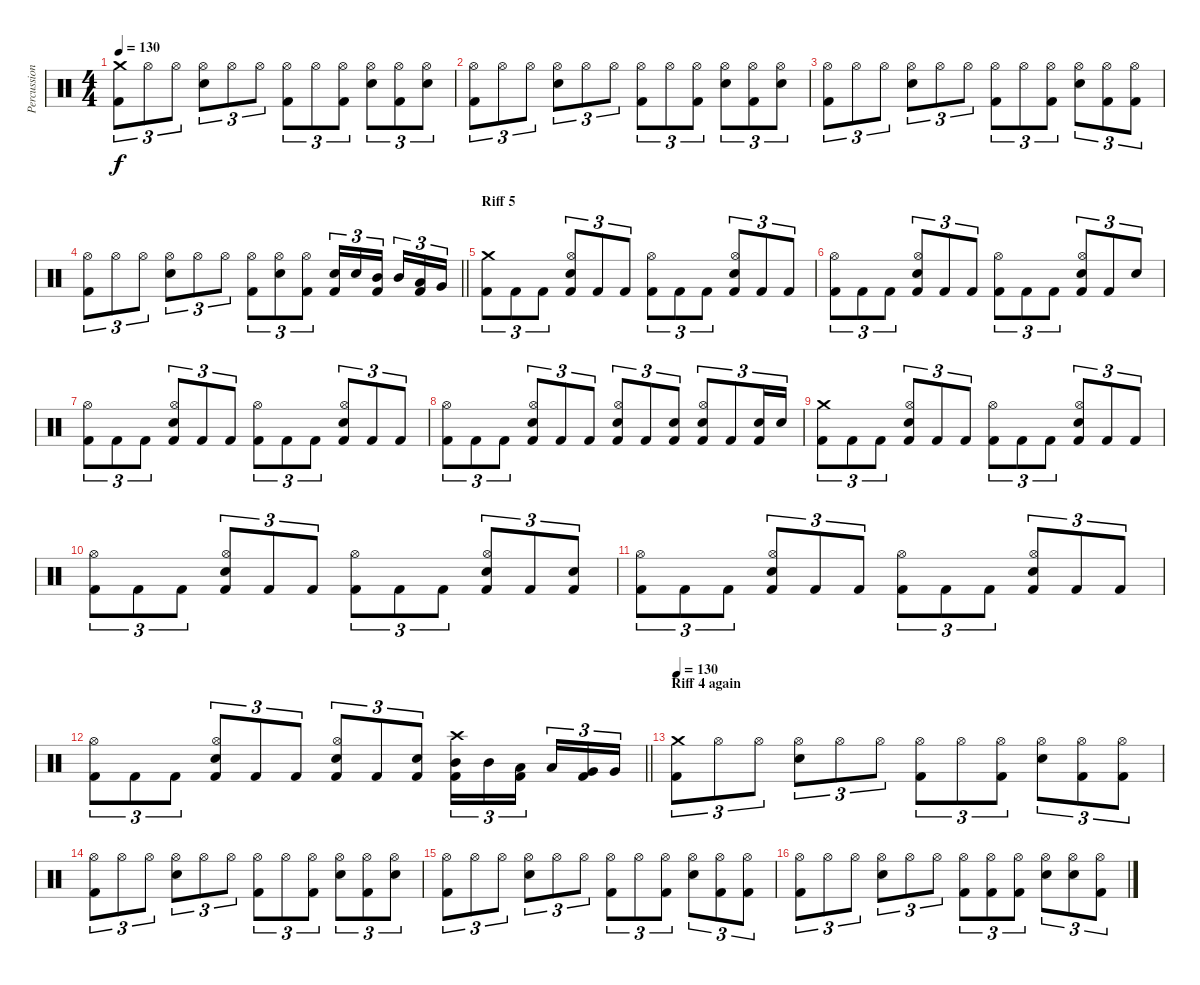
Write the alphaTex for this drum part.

\track ("Percussion" "Percussion") {instrument percussion}
\staff {score}
\articulation defaults
\ts (4 4)
\tempo 130
\clef neutral
\ks c
("Crash medium (hit)" "Kick (hit) 2").8{tu (3 2) dy f} "Hi-Hat (open)".8{tu (3 2)} "Hi-Hat (open)".8{tu (3 2)} ("Hi-Hat (open)" "Snare (hit) 2").8{tu (3 2)} "Hi-Hat (open)".8{tu (3 2)} "Hi-Hat (open)".8{tu (3 2)} ("Hi-Hat (open)" "Kick (hit) 2").8{tu (3 2)} "Hi-Hat (open)".8{tu (3 2)} ("Hi-Hat (open)" "Kick (hit) 2").8{tu (3 2)} ("Hi-Hat (open)" "Snare (hit) 2").8{tu (3 2)} ("Hi-Hat (open)" "Kick (hit) 2").8{tu (3 2)} ("Hi-Hat (open)" "Snare (hit) 2").8{tu (3 2)} |
("Hi-Hat (open)" "Kick (hit) 2").8{tu (3 2)} "Hi-Hat (open)".8{tu (3 2)} "Hi-Hat (open)".8{tu (3 2)} ("Hi-Hat (open)" "Snare (hit) 2").8{tu (3 2)} "Hi-Hat (open)".8{tu (3 2)} "Hi-Hat (open)".8{tu (3 2)} ("Hi-Hat (open)" "Kick (hit) 2").8{tu (3 2)} "Hi-Hat (open)".8{tu (3 2)} ("Hi-Hat (open)" "Kick (hit) 2").8{tu (3 2)} ("Hi-Hat (open)" "Snare (hit) 2").8{tu (3 2)} ("Hi-Hat (open)" "Kick (hit) 2").8{tu (3 2)} ("Hi-Hat (open)" "Snare (hit) 2").8{tu (3 2)} |
("Hi-Hat (open)" "Kick (hit) 2").8{tu (3 2)} "Hi-Hat (open)".8{tu (3 2)} "Hi-Hat (open)".8{tu (3 2)} ("Hi-Hat (open)" "Snare (hit) 2").8{tu (3 2)} "Hi-Hat (open)".8{tu (3 2)} "Hi-Hat (open)".8{tu (3 2)} ("Hi-Hat (open)" "Kick (hit) 2").8{tu (3 2)} "Hi-Hat (open)".8{tu (3 2)} ("Hi-Hat (open)" "Kick (hit) 2").8{tu (3 2)} ("Hi-Hat (open)" "Snare (hit) 2").8{tu (3 2)} ("Hi-Hat (open)" "Kick (hit) 2").8{tu (3 2)} ("Hi-Hat (open)" "Kick (hit) 2").8{tu (3 2)} |
\barLineRight lightlight
("Hi-Hat (open)" "Kick (hit) 2").8{tu (3 2)} "Hi-Hat (open)".8{tu (3 2)} "Hi-Hat (open)".8{tu (3 2)} ("Hi-Hat (open)" "Snare (hit) 2").8{tu (3 2)} "Hi-Hat (open)".8{tu (3 2)} "Hi-Hat (open)".8{tu (3 2)} ("Hi-Hat (open)" "Kick (hit) 2").8{tu (3 2)} ("Hi-Hat (open)" "Snare (hit) 2").8{tu (3 2)} ("Hi-Hat (open)" "Kick (hit) 2").8{tu (3 2)} ("Kick (hit) 2" "Snare (hit) 2").16{tu (3 2)} "Snare (hit) 2".16{tu (3 2)} ("Kick (hit) 2" "Mid Tom (hit)").16{tu (3 2)} "Mid Tom (hit)".16{tu (3 2)} ("Kick (hit) 2" "Low Tom (hit)").16{tu (3 2)} "Very Low Tom (hit)".16{tu (3 2)} |
\section ("" "Riff 5")
("Crash medium (hit)" "Kick (hit) 2").8{tu (3 2)} "Kick (hit) 2".8{tu (3 2)} "Kick (hit) 2".8{tu (3 2)} ("Kick (hit) 2" "Hi-Hat (open)" "Snare (hit) 2").8{tu (3 2)} "Kick (hit) 2".8{tu (3 2)} "Kick (hit) 2".8{tu (3 2)} ("Hi-Hat (open)" "Kick (hit) 2").8{tu (3 2)} "Kick (hit) 2".8{tu (3 2)} "Kick (hit) 2".8{tu (3 2)} ("Kick (hit) 2" "Hi-Hat (open)" "Snare (hit) 2").8{tu (3 2)} "Kick (hit) 2".8{tu (3 2)} "Kick (hit) 2".8{tu (3 2)} |
("Hi-Hat (open)" "Kick (hit) 2").8{tu (3 2)} "Kick (hit) 2".8{tu (3 2)} "Kick (hit) 2".8{tu (3 2)} ("Kick (hit) 2" "Hi-Hat (open)" "Snare (hit) 2").8{tu (3 2)} "Kick (hit) 2".8{tu (3 2)} "Kick (hit) 2".8{tu (3 2)} ("Hi-Hat (open)" "Kick (hit) 2").8{tu (3 2)} "Kick (hit) 2".8{tu (3 2)} "Kick (hit) 2".8{tu (3 2)} ("Kick (hit) 2" "Hi-Hat (open)" "Snare (hit) 2").8{tu (3 2)} "Kick (hit) 2".8{tu (3 2)} "Snare (hit) 2".8{tu (3 2)} |
("Hi-Hat (open)" "Kick (hit) 2").8{tu (3 2)} "Kick (hit) 2".8{tu (3 2)} "Kick (hit) 2".8{tu (3 2)} ("Kick (hit) 2" "Hi-Hat (open)" "Snare (hit) 2").8{tu (3 2)} "Kick (hit) 2".8{tu (3 2)} "Kick (hit) 2".8{tu (3 2)} ("Hi-Hat (open)" "Kick (hit) 2").8{tu (3 2)} "Kick (hit) 2".8{tu (3 2)} "Kick (hit) 2".8{tu (3 2)} ("Kick (hit) 2" "Hi-Hat (open)" "Snare (hit) 2").8{tu (3 2)} "Kick (hit) 2".8{tu (3 2)} "Kick (hit) 2".8{tu (3 2)} |
("Hi-Hat (open)" "Kick (hit) 2").8{tu (3 2)} "Kick (hit) 2".8{tu (3 2)} "Kick (hit) 2".8{tu (3 2)} ("Kick (hit) 2" "Hi-Hat (open)" "Snare (hit) 2").8{tu (3 2)} "Kick (hit) 2".8{tu (3 2)} "Kick (hit) 2".8{tu (3 2)} ("Kick (hit) 2" "Hi-Hat (open)" "Snare (hit) 2").8{tu (3 2)} "Kick (hit) 2".8{tu (3 2)} ("Kick (hit) 2" "Snare (hit) 2").8{tu (3 2)} ("Kick (hit) 2" "Hi-Hat (open)" "Snare (hit) 2").8{tu (3 2)} "Kick (hit) 2".8{tu (3 2)} ("Kick (hit) 2" "Snare (hit) 2").16{tu (3 2)} "Snare (hit) 2".16{tu (3 2)} |
("Crash medium (hit)" "Kick (hit) 2").8{tu (3 2)} "Kick (hit) 2".8{tu (3 2)} "Kick (hit) 2".8{tu (3 2)} ("Kick (hit) 2" "Hi-Hat (open)" "Snare (hit) 2").8{tu (3 2)} "Kick (hit) 2".8{tu (3 2)} "Kick (hit) 2".8{tu (3 2)} ("Hi-Hat (open)" "Kick (hit) 2").8{tu (3 2)} "Kick (hit) 2".8{tu (3 2)} "Kick (hit) 2".8{tu (3 2)} ("Kick (hit) 2" "Hi-Hat (open)" "Snare (hit) 2").8{tu (3 2)} "Kick (hit) 2".8{tu (3 2)} "Kick (hit) 2".8{tu (3 2)} |
("Hi-Hat (open)" "Kick (hit) 2").8{tu (3 2)} "Kick (hit) 2".8{tu (3 2)} "Kick (hit) 2".8{tu (3 2)} ("Kick (hit) 2" "Hi-Hat (open)" "Snare (hit) 2").8{tu (3 2)} "Kick (hit) 2".8{tu (3 2)} "Kick (hit) 2".8{tu (3 2)} ("Hi-Hat (open)" "Kick (hit) 2").8{tu (3 2)} "Kick (hit) 2".8{tu (3 2)} "Kick (hit) 2".8{tu (3 2)} ("Kick (hit) 2" "Hi-Hat (open)" "Snare (hit) 2").8{tu (3 2)} "Kick (hit) 2".8{tu (3 2)} ("Kick (hit) 2" "Snare (hit) 2").8{tu (3 2)} |
("Hi-Hat (open)" "Kick (hit) 2").8{tu (3 2)} "Kick (hit) 2".8{tu (3 2)} "Kick (hit) 2".8{tu (3 2)} ("Kick (hit) 2" "Hi-Hat (open)" "Snare (hit) 2").8{tu (3 2)} "Kick (hit) 2".8{tu (3 2)} "Kick (hit) 2".8{tu (3 2)} ("Hi-Hat (open)" "Kick (hit) 2").8{tu (3 2)} "Kick (hit) 2".8{tu (3 2)} "Kick (hit) 2".8{tu (3 2)} ("Kick (hit) 2" "Hi-Hat (open)" "Snare (hit) 2").8{tu (3 2)} "Kick (hit) 2".8{tu (3 2)} "Kick (hit) 2".8{tu (3 2)} |
\barLineRight lightlight
("Hi-Hat (open)" "Kick (hit) 2").8{tu (3 2)} "Kick (hit) 2".8{tu (3 2)} "Kick (hit) 2".8{tu (3 2)} ("Kick (hit) 2" "Hi-Hat (open)" "Snare (hit) 2").8{tu (3 2)} "Kick (hit) 2".8{tu (3 2)} "Kick (hit) 2".8{tu (3 2)} ("Kick (hit) 2" "Hi-Hat (open)" "Snare (hit) 2").8{tu (3 2)} "Kick (hit) 2".8{tu (3 2)} ("Kick (hit) 2" "Snare (hit) 2").8{tu (3 2)} ("Kick (hit) 2" "Crash high (hit)" "Mid Tom (hit)").16{tu (3 2)} "Mid Tom (hit)".16{tu (3 2)} ("Kick (hit) 2" "Low Tom (hit)").16{tu (3 2)} "Low Tom (hit)".16{tu (3 2)} ("Kick (hit) 2" "Very Low Tom (hit)").16{tu (3 2)} "Very Low Tom (hit)".16{tu (3 2)} |
\section ("" "Riff 4 again")
\tempo 130
("Crash medium (hit)" "Kick (hit) 2").8{tu (3 2)} "Hi-Hat (open)".8{tu (3 2)} "Hi-Hat (open)".8{tu (3 2)} ("Hi-Hat (open)" "Snare (hit) 2").8{tu (3 2)} "Hi-Hat (open)".8{tu (3 2)} "Hi-Hat (open)".8{tu (3 2)} ("Hi-Hat (open)" "Kick (hit) 2").8{tu (3 2)} "Hi-Hat (open)".8{tu (3 2)} ("Hi-Hat (open)" "Kick (hit) 2").8{tu (3 2)} ("Hi-Hat (open)" "Snare (hit) 2").8{tu (3 2)} ("Hi-Hat (open)" "Kick (hit) 2").8{tu (3 2)} ("Hi-Hat (open)" "Kick (hit) 2").8{tu (3 2)} |
("Hi-Hat (open)" "Kick (hit) 2").8{tu (3 2)} "Hi-Hat (open)".8{tu (3 2)} "Hi-Hat (open)".8{tu (3 2)} ("Hi-Hat (open)" "Snare (hit) 2").8{tu (3 2)} "Hi-Hat (open)".8{tu (3 2)} "Hi-Hat (open)".8{tu (3 2)} ("Hi-Hat (open)" "Kick (hit) 2").8{tu (3 2)} "Hi-Hat (open)".8{tu (3 2)} ("Hi-Hat (open)" "Kick (hit) 2").8{tu (3 2)} ("Hi-Hat (open)" "Snare (hit) 2").8{tu (3 2)} ("Hi-Hat (open)" "Kick (hit) 2").8{tu (3 2)} ("Hi-Hat (open)" "Snare (hit) 2").8{tu (3 2)} |
("Hi-Hat (open)" "Kick (hit) 2").8{tu (3 2)} "Hi-Hat (open)".8{tu (3 2)} "Hi-Hat (open)".8{tu (3 2)} ("Hi-Hat (open)" "Snare (hit) 2").8{tu (3 2)} "Hi-Hat (open)".8{tu (3 2)} "Hi-Hat (open)".8{tu (3 2)} ("Hi-Hat (open)" "Kick (hit) 2").8{tu (3 2)} "Hi-Hat (open)".8{tu (3 2)} ("Hi-Hat (open)" "Kick (hit) 2").8{tu (3 2)} ("Hi-Hat (open)" "Snare (hit) 2").8{tu (3 2)} ("Hi-Hat (open)" "Kick (hit) 2").8{tu (3 2)} ("Hi-Hat (open)" "Kick (hit) 2").8{tu (3 2)} |
("Hi-Hat (open)" "Kick (hit) 2").8{tu (3 2)} "Hi-Hat (open)".8{tu (3 2)} "Hi-Hat (open)".8{tu (3 2)} ("Hi-Hat (open)" "Snare (hit) 2").8{tu (3 2)} "Hi-Hat (open)".8{tu (3 2)} "Hi-Hat (open)".8{tu (3 2)} ("Hi-Hat (open)" "Kick (hit) 2").8{tu (3 2)} ("Hi-Hat (open)" "Kick (hit) 2").8{tu (3 2)} ("Hi-Hat (open)" "Kick (hit) 2").8{tu (3 2)} ("Hi-Hat (open)" "Snare (hit) 2").8{tu (3 2)} ("Hi-Hat (open)" "Snare (hit) 2").8{tu (3 2)} ("Hi-Hat (open)" "Kick (hit) 2").8{tu (3 2)}
